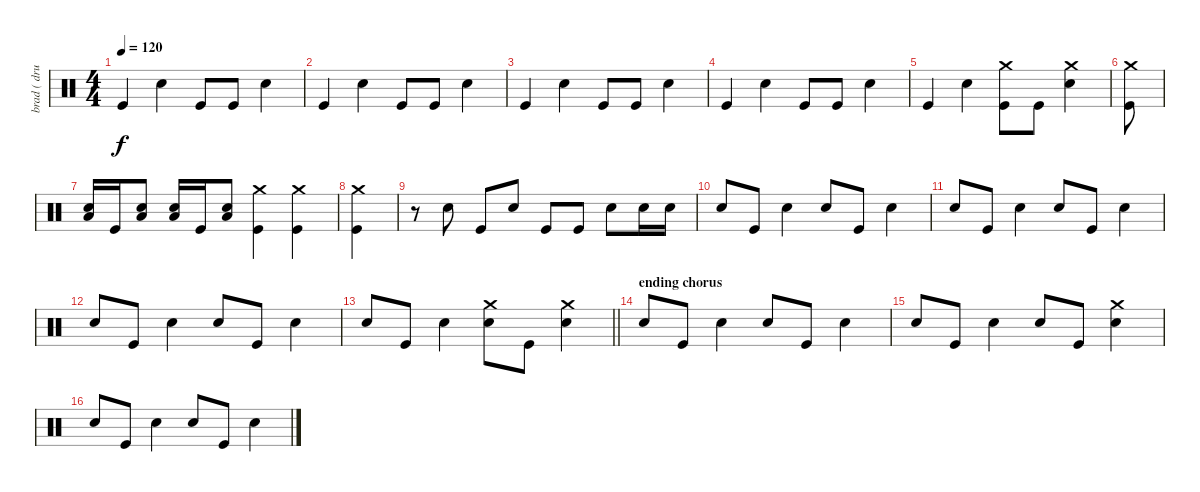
\track ("brad ( drums)" "brad ( dru") {instrument percussion}
\staff {score}
\articulation defaults
\ts (4 4)
\tempo 120
\clef neutral
\ks c "Kick (hit)".4{dy f} "Electric Snare (hit)".4 "Kick (hit)".8 "Kick (hit)".8 "Electric Snare (hit)".4
|
"Kick (hit)".4 "Electric Snare (hit)".4 "Kick (hit)".8 "Kick (hit)".8 "Electric Snare (hit)".4 |
"Kick (hit)".4 "Electric Snare (hit)".4 "Kick (hit)".8 "Kick (hit)".8 "Electric Snare (hit)".4 |
"Kick (hit)".4 "Electric Snare (hit)".4 "Kick (hit)".8 "Kick (hit)".8 "Electric Snare (hit)".4 |
"Kick (hit)".4 "Electric Snare (hit)".4 ("Kick (hit)" "Crash medium (hit)").8 "Kick (hit)".8 ("Electric Snare (hit)" "Crash medium (hit)").4 |
("Kick (hit)" "Crash medium (hit)").8 |
("Electric Snare (hit)" "Low Floor Tom (hit)").16 "Kick (hit)".16 ("Electric Snare (hit)" "Low Tom (hit)").8 ("Electric Snare (hit)" "Low Floor Tom (hit)").16 "Kick (hit)".16 ("Electric Snare (hit)" "Low Floor Tom (hit)").8 ("Kick (hit)" "Crash medium (hit)").4 ("Kick (hit)" "Crash medium (hit)").4 |
("Kick (hit)" "Crash medium (hit)").4 |
r.8 "Electric Snare (hit)".8 "Kick (hit)".8 "Electric Snare (hit)".8 "Kick (hit)".8 "Kick (hit)".8 "Electric Snare (hit)".8 "Electric Snare (hit)".16 "Electric Snare (hit)".16 |
"Electric Snare (hit)".8 "Kick (hit)".8 "Electric Snare (hit)".4 "Electric Snare (hit)".8 "Kick (hit)".8 "Electric Snare (hit)".4 |
"Electric Snare (hit)".8 "Kick (hit)".8 "Electric Snare (hit)".4 "Electric Snare (hit)".8 "Kick (hit)".8 "Electric Snare (hit)".4 |
"Electric Snare (hit)".8 "Kick (hit)".8 "Electric Snare (hit)".4 "Electric Snare (hit)".8 "Kick (hit)".8 "Electric Snare (hit)".4 |
\barLineRight lightlight "Electric Snare (hit)".8 "Kick (hit)".8 "Electric Snare (hit)".4
("Electric Snare (hit)" "Crash medium (hit)").8 "Kick (hit)".8 ("Electric Snare (hit)" "Crash medium (hit)").4 |
\section ("" "ending chorus")
"Electric Snare (hit)".8 "Kick (hit)".8 "Electric Snare (hit)".4 "Electric Snare (hit)".8 "Kick (hit)".8 "Electric Snare (hit)".4 |
"Electric Snare (hit)".8 "Kick (hit)".8 "Electric Snare (hit)".4 "Electric Snare (hit)".8 "Kick (hit)".8 ("Electric Snare (hit)" "Crash medium (hit)").4 |
"Electric Snare (hit)".8 "Kick (hit)".8 "Electric Snare (hit)".4 "Electric Snare (hit)".8 "Kick (hit)".8 "Electric Snare (hit)".4
